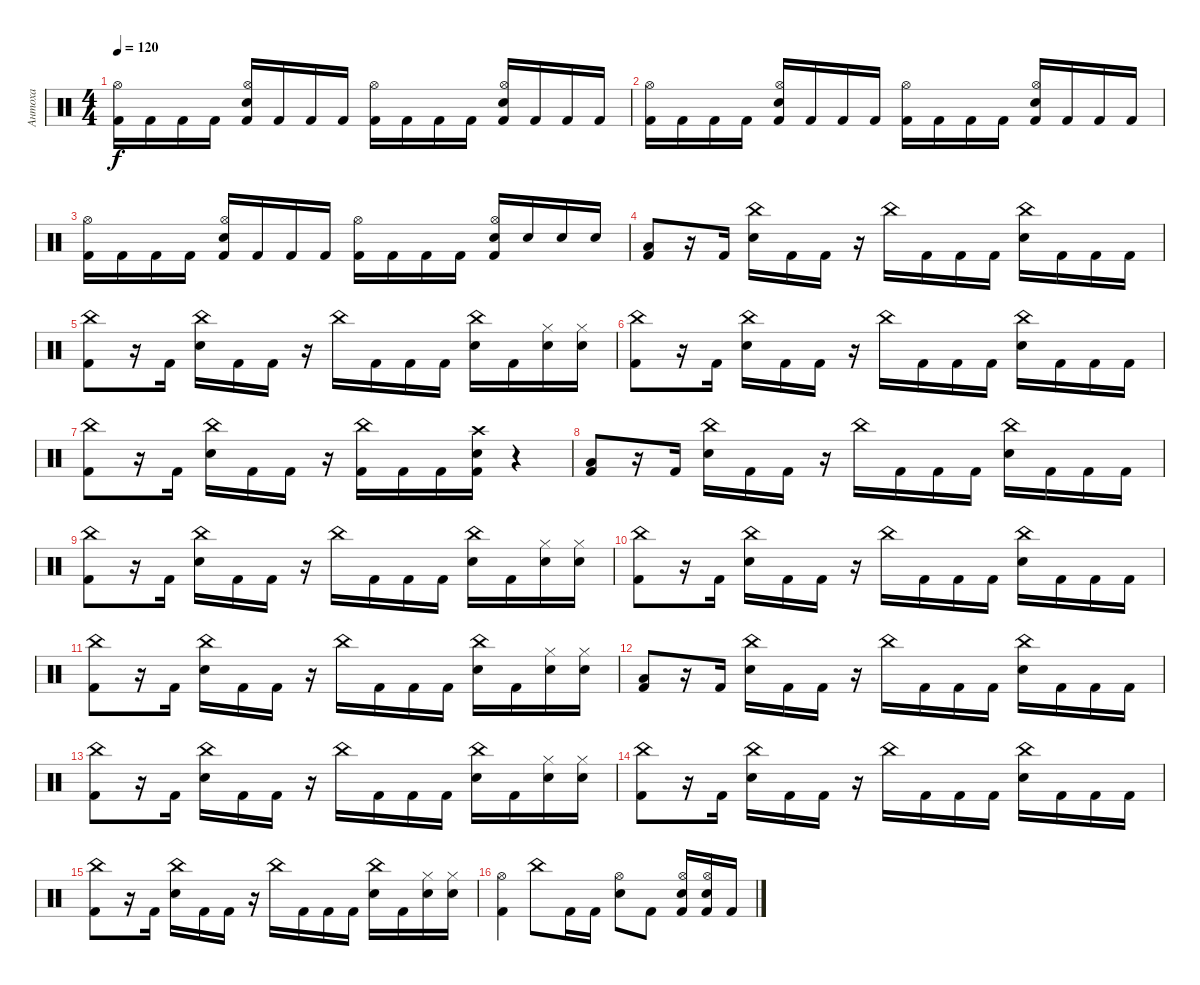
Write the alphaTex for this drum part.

\track ("Антоха" "Антоха") {instrument percussion}
\staff {score}
\articulation defaults
\ts (4 4)
\tempo 120
\clef neutral
\ks c
("Kick (hit) 2" "Hi-Hat (open)").16{dy f} "Kick (hit) 2".16 "Kick (hit) 2".16 "Kick (hit) 2".16 ("Kick (hit) 2" "Electric Snare (hit)" "Hi-Hat (open)").16 "Kick (hit) 2".16 "Kick (hit) 2".16 "Kick (hit) 2".16 ("Kick (hit) 2" "Hi-Hat (open)").16 "Kick (hit) 2".16 "Kick (hit) 2".16 "Kick (hit) 2".16 ("Kick (hit) 2" "Electric Snare (hit)" "Hi-Hat (open)").16 "Kick (hit) 2".16 "Kick (hit) 2".16 "Kick (hit) 2".16 |
("Kick (hit) 2" "Hi-Hat (open)").16 "Kick (hit) 2".16 "Kick (hit) 2".16 "Kick (hit) 2".16 ("Kick (hit) 2" "Electric Snare (hit)" "Hi-Hat (open)").16 "Kick (hit) 2".16 "Kick (hit) 2".16 "Kick (hit) 2".16 ("Kick (hit) 2" "Hi-Hat (open)").16 "Kick (hit) 2".16 "Kick (hit) 2".16 "Kick (hit) 2".16 ("Kick (hit) 2" "Electric Snare (hit)" "Hi-Hat (open)").16 "Kick (hit) 2".16 "Kick (hit) 2".16 "Kick (hit) 2".16 |
("Kick (hit) 2" "Hi-Hat (open)").16 "Kick (hit) 2".16 "Kick (hit) 2".16 "Kick (hit) 2".16 ("Kick (hit) 2" "Electric Snare (hit)" "Hi-Hat (open)").16 "Kick (hit) 2".16 "Kick (hit) 2".16 "Kick (hit) 2".16 ("Kick (hit) 2" "Hi-Hat (open)").16 "Kick (hit) 2".16 "Kick (hit) 2".16 "Kick (hit) 2".16 ("Kick (hit) 2" "Electric Snare (hit)" "Hi-Hat (open)").16 "Electric Snare (hit)".16 "Electric Snare (hit)".16 "Electric Snare (hit)".16 |
("Kick (hit) 2" "Low Floor Tom (hit)").8 r.16 "Kick (hit) 2".16 ("Electric Snare (hit)" "China (hit)").16 "Kick (hit) 2".16 "Kick (hit) 2".16 r.16 "China (hit)".16 "Kick (hit) 2".16 "Kick (hit) 2".16 "Kick (hit) 2".16 ("Electric Snare (hit)" "China (hit)").16 "Kick (hit) 2".16 "Kick (hit) 2".16 "Kick (hit) 2".16 |
("Kick (hit) 2" "China (hit)").8 r.16 "Kick (hit) 2".16 ("Electric Snare (hit)" "China (hit)").16 "Kick (hit) 2".16 "Kick (hit) 2".16 r.16 "China (hit)".16 "Kick (hit) 2".16 "Kick (hit) 2".16 "Kick (hit) 2".16 ("Electric Snare (hit)" "China (hit)").16 "Kick (hit) 2".16 ("Electric Snare (hit)" "Hi-Hat (closed)").16 ("Electric Snare (hit)" "Hi-Hat (closed)").16 |
("Kick (hit) 2" "China (hit)").8 r.16 "Kick (hit) 2".16 ("Electric Snare (hit)" "China (hit)").16 "Kick (hit) 2".16 "Kick (hit) 2".16 r.16 "China (hit)".16 "Kick (hit) 2".16 "Kick (hit) 2".16 "Kick (hit) 2".16 ("Electric Snare (hit)" "China (hit)").16 "Kick (hit) 2".16 "Kick (hit) 2".16 "Kick (hit) 2".16 |
("Kick (hit) 2" "China (hit)").8 r.16 "Kick (hit) 2".16 ("Electric Snare (hit)" "China (hit)").16 "Kick (hit) 2".16 "Kick (hit) 2".16 r.16 ("Kick (hit) 2" "China (hit)").16 "Kick (hit) 2".16 "Kick (hit) 2".16 ("Kick (hit) 2" "Electric Snare (hit)" "Crash high (hit)").16 r.4 |
("Kick (hit) 2" "Low Floor Tom (hit)").8 r.16 "Kick (hit) 2".16 ("Electric Snare (hit)" "China (hit)").16 "Kick (hit) 2".16 "Kick (hit) 2".16 r.16 "China (hit)".16 "Kick (hit) 2".16 "Kick (hit) 2".16 "Kick (hit) 2".16 ("Electric Snare (hit)" "China (hit)").16 "Kick (hit) 2".16 "Kick (hit) 2".16 "Kick (hit) 2".16 |
("Kick (hit) 2" "China (hit)").8 r.16 "Kick (hit) 2".16 ("Electric Snare (hit)" "China (hit)").16 "Kick (hit) 2".16 "Kick (hit) 2".16 r.16 "China (hit)".16 "Kick (hit) 2".16 "Kick (hit) 2".16 "Kick (hit) 2".16 ("Electric Snare (hit)" "China (hit)").16 "Kick (hit) 2".16 ("Electric Snare (hit)" "Hi-Hat (closed)").16 ("Electric Snare (hit)" "Hi-Hat (closed)").16 |
("Kick (hit) 2" "China (hit)").8 r.16 "Kick (hit) 2".16 ("Electric Snare (hit)" "China (hit)").16 "Kick (hit) 2".16 "Kick (hit) 2".16 r.16 "China (hit)".16 "Kick (hit) 2".16 "Kick (hit) 2".16 "Kick (hit) 2".16 ("Electric Snare (hit)" "China (hit)").16 "Kick (hit) 2".16 "Kick (hit) 2".16 "Kick (hit) 2".16 |
("Kick (hit) 2" "China (hit)").8 r.16 "Kick (hit) 2".16 ("Electric Snare (hit)" "China (hit)").16 "Kick (hit) 2".16 "Kick (hit) 2".16 r.16 "China (hit)".16 "Kick (hit) 2".16 "Kick (hit) 2".16 "Kick (hit) 2".16 ("Electric Snare (hit)" "China (hit)").16 "Kick (hit) 2".16 ("Electric Snare (hit)" "Hi-Hat (closed)").16 ("Electric Snare (hit)" "Hi-Hat (closed)").16 |
("Kick (hit) 2" "Low Floor Tom (hit)").8 r.16 "Kick (hit) 2".16 ("Electric Snare (hit)" "China (hit)").16 "Kick (hit) 2".16 "Kick (hit) 2".16 r.16 "China (hit)".16 "Kick (hit) 2".16 "Kick (hit) 2".16 "Kick (hit) 2".16 ("Electric Snare (hit)" "China (hit)").16 "Kick (hit) 2".16 "Kick (hit) 2".16 "Kick (hit) 2".16 |
("Kick (hit) 2" "China (hit)").8 r.16 "Kick (hit) 2".16 ("Electric Snare (hit)" "China (hit)").16 "Kick (hit) 2".16 "Kick (hit) 2".16 r.16 "China (hit)".16 "Kick (hit) 2".16 "Kick (hit) 2".16 "Kick (hit) 2".16 ("Electric Snare (hit)" "China (hit)").16 "Kick (hit) 2".16 ("Electric Snare (hit)" "Hi-Hat (closed)").16 ("Electric Snare (hit)" "Hi-Hat (closed)").16 |
("Kick (hit) 2" "China (hit)").8 r.16 "Kick (hit) 2".16 ("Electric Snare (hit)" "China (hit)").16 "Kick (hit) 2".16 "Kick (hit) 2".16 r.16 "China (hit)".16 "Kick (hit) 2".16 "Kick (hit) 2".16 "Kick (hit) 2".16 ("Electric Snare (hit)" "China (hit)").16 "Kick (hit) 2".16 "Kick (hit) 2".16 "Kick (hit) 2".16 |
("Kick (hit) 2" "China (hit)").8 r.16 "Kick (hit) 2".16 ("Electric Snare (hit)" "China (hit)").16 "Kick (hit) 2".16 "Kick (hit) 2".16 r.16 "China (hit)".16 "Kick (hit) 2".16 "Kick (hit) 2".16 "Kick (hit) 2".16 ("Electric Snare (hit)" "China (hit)").16 "Kick (hit) 2".16 ("Electric Snare (hit)" "Hi-Hat (closed)").16 ("Electric Snare (hit)" "Hi-Hat (closed)").16 |
("Kick (hit) 2" "Hi-Hat (open)").4 "China (hit)".8 "Kick (hit) 2".16 "Kick (hit) 2".16 ("Electric Snare (hit)" "Hi-Hat (open)").8 "Kick (hit) 2".8 ("Kick (hit) 2" "Electric Snare (hit)" "Hi-Hat (open)").16 ("Kick (hit) 2" "Electric Snare (hit)" "Hi-Hat (open)").16 "Kick (hit) 2".16
